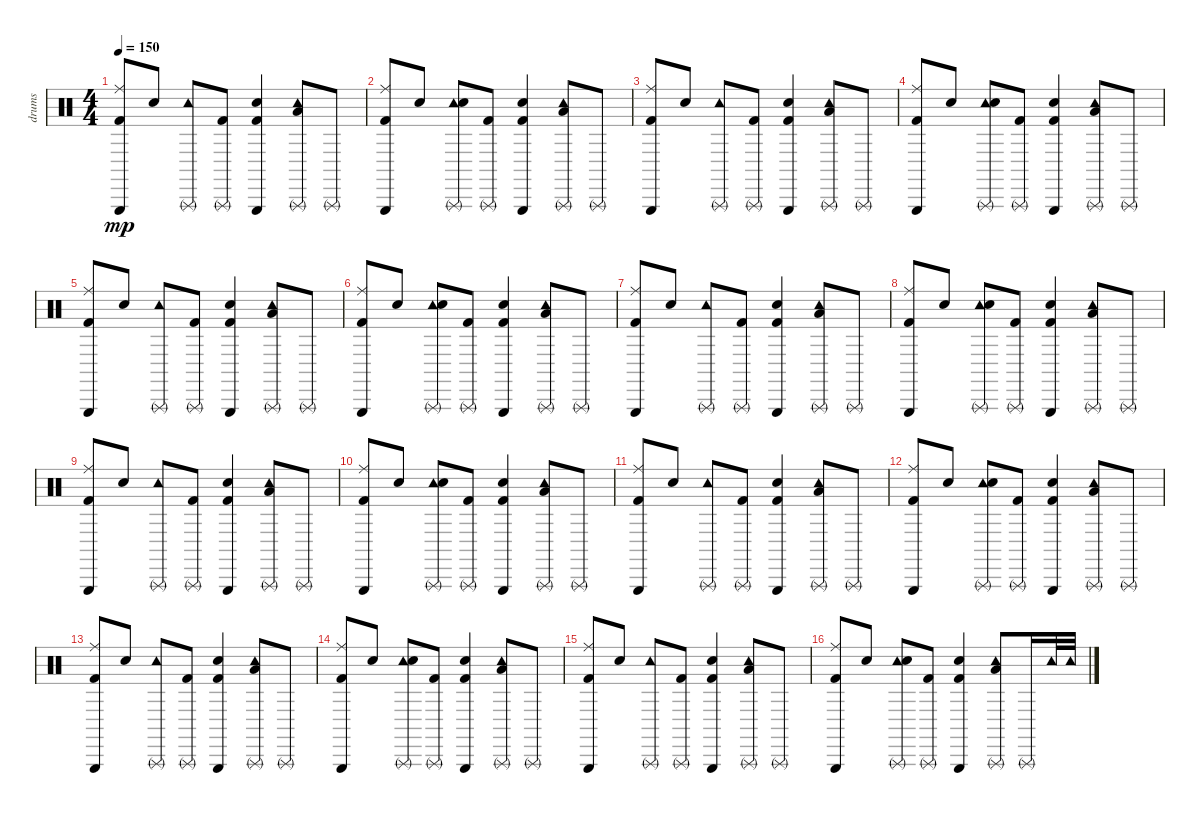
\track ("drums" "drums") {instrument percussion}
\staff {score}
\articulation defaults
\ts (4 4)
\tempo 150
\clef neutral
\ks c
("Triangle (hit)" "Ride (middle)" "Kick (hit) 2").8{dy mp} "Snare (hit) 2".8 ("Triangle (rnute)" "Tambourine (hit)").8 ("Triangle (rnute)" "Kick (hit) 2").8 ("Triangle (hit)" "Kick (hit) 2" "Snare (hit) 2").4 ("Tambourine (hit)" "Low Tom (hit)" "Triangle (rnute)").8 "Triangle (rnute)".8 |
("Triangle (hit)" "Ride (middle)" "Kick (hit) 2").8 "Snare (hit) 2".8 ("Triangle (rnute)" "Tambourine (hit)" "Snare (hit) 2").8 ("Triangle (rnute)" "Kick (hit) 2").8 ("Triangle (hit)" "Kick (hit) 2" "Snare (hit) 2").4 ("Tambourine (hit)" "Low Tom (hit)" "Triangle (rnute)").8 "Triangle (rnute)".8 |
("Triangle (hit)" "Ride (middle)" "Kick (hit) 2").8 "Snare (hit) 2".8 ("Triangle (rnute)" "Tambourine (hit)").8 ("Triangle (rnute)" "Kick (hit) 2").8 ("Triangle (hit)" "Kick (hit) 2" "Snare (hit) 2").4 ("Tambourine (hit)" "Low Tom (hit)" "Triangle (rnute)").8 "Triangle (rnute)".8 |
("Triangle (hit)" "Ride (middle)" "Kick (hit) 2").8 "Snare (hit) 2".8 ("Triangle (rnute)" "Tambourine (hit)" "Snare (hit) 2").8 ("Triangle (rnute)" "Kick (hit) 2").8 ("Triangle (hit)" "Kick (hit) 2" "Snare (hit) 2").4 ("Tambourine (hit)" "Low Tom (hit)" "Triangle (rnute)").8 "Triangle (rnute)".8 |
("Triangle (hit)" "Ride (middle)" "Kick (hit) 2").8 "Snare (hit) 2".8 ("Triangle (rnute)" "Tambourine (hit)").8 ("Triangle (rnute)" "Kick (hit) 2").8 ("Triangle (hit)" "Kick (hit) 2" "Snare (hit) 2").4 ("Tambourine (hit)" "Low Tom (hit)" "Triangle (rnute)").8 "Triangle (rnute)".8 |
("Triangle (hit)" "Ride (middle)" "Kick (hit) 2").8 "Snare (hit) 2".8 ("Triangle (rnute)" "Tambourine (hit)" "Snare (hit) 2").8 ("Triangle (rnute)" "Kick (hit) 2").8 ("Triangle (hit)" "Kick (hit) 2" "Snare (hit) 2").4 ("Tambourine (hit)" "Low Tom (hit)" "Triangle (rnute)").8 "Triangle (rnute)".8 |
("Triangle (hit)" "Ride (middle)" "Kick (hit) 2").8 "Snare (hit) 2".8 ("Triangle (rnute)" "Tambourine (hit)").8 ("Triangle (rnute)" "Kick (hit) 2").8 ("Triangle (hit)" "Kick (hit) 2" "Snare (hit) 2").4 ("Tambourine (hit)" "Low Tom (hit)" "Triangle (rnute)").8 "Triangle (rnute)".8 |
("Triangle (hit)" "Ride (middle)" "Kick (hit) 2").8 "Snare (hit) 2".8 ("Triangle (rnute)" "Tambourine (hit)" "Snare (hit) 2").8 ("Triangle (rnute)" "Kick (hit) 2").8 ("Triangle (hit)" "Kick (hit) 2" "Snare (hit) 2").4 ("Tambourine (hit)" "Low Tom (hit)" "Triangle (rnute)").8 "Triangle (rnute)".8 |
("Triangle (hit)" "Ride (middle)" "Kick (hit) 2").8 "Snare (hit) 2".8 ("Triangle (rnute)" "Tambourine (hit)").8 ("Triangle (rnute)" "Kick (hit) 2").8 ("Triangle (hit)" "Kick (hit) 2" "Snare (hit) 2").4 ("Tambourine (hit)" "Low Tom (hit)" "Triangle (rnute)").8 "Triangle (rnute)".8 |
("Triangle (hit)" "Ride (middle)" "Kick (hit) 2").8 "Snare (hit) 2".8 ("Triangle (rnute)" "Tambourine (hit)" "Snare (hit) 2").8 ("Triangle (rnute)" "Kick (hit) 2").8 ("Triangle (hit)" "Kick (hit) 2" "Snare (hit) 2").4 ("Tambourine (hit)" "Low Tom (hit)" "Triangle (rnute)").8 "Triangle (rnute)".8 |
("Triangle (hit)" "Ride (middle)" "Kick (hit) 2").8 "Snare (hit) 2".8 ("Triangle (rnute)" "Tambourine (hit)").8 ("Triangle (rnute)" "Kick (hit) 2").8 ("Triangle (hit)" "Kick (hit) 2" "Snare (hit) 2").4 ("Tambourine (hit)" "Low Tom (hit)" "Triangle (rnute)").8 "Triangle (rnute)".8 |
("Triangle (hit)" "Ride (middle)" "Kick (hit) 2").8 "Snare (hit) 2".8 ("Triangle (rnute)" "Tambourine (hit)" "Snare (hit) 2").8 ("Triangle (rnute)" "Kick (hit) 2").8 ("Triangle (hit)" "Kick (hit) 2" "Snare (hit) 2").4 ("Tambourine (hit)" "Low Tom (hit)" "Triangle (rnute)").8 "Triangle (rnute)".8 |
("Triangle (hit)" "Ride (middle)" "Kick (hit) 2").8 "Snare (hit) 2".8{volume 16} ("Triangle (rnute)" "Tambourine (hit)").8 ("Triangle (rnute)" "Kick (hit) 2").8 ("Triangle (hit)" "Kick (hit) 2" "Snare (hit) 2").4{volume 11} ("Tambourine (hit)" "Low Tom (hit)" "Triangle (rnute)").8{volume 15} "Triangle (rnute)".8{volume 15} |
("Triangle (hit)" "Ride (middle)" "Kick (hit) 2").8{volume 15} "Snare (hit) 2".8 ("Triangle (rnute)" "Tambourine (hit)" "Snare (hit) 2").8{volume 15} ("Triangle (rnute)" "Kick (hit) 2").8{volume 15} ("Triangle (hit)" "Kick (hit) 2" "Snare (hit) 2").4 ("Tambourine (hit)" "Low Tom (hit)" "Triangle (rnute)").8{volume 15} "Triangle (rnute)".8{volume 14} |
("Triangle (hit)" "Ride (middle)" "Kick (hit) 2").8{volume 14} "Snare (hit) 2".8{volume 14} ("Triangle (rnute)" "Tambourine (hit)").8{volume 14} ("Triangle (rnute)" "Kick (hit) 2").8{volume 13} ("Triangle (hit)" "Kick (hit) 2" "Snare (hit) 2").4{volume 13} ("Tambourine (hit)" "Low Tom (hit)" "Triangle (rnute)").8{volume 11} "Triangle (rnute)".8{volume 11} |
("Triangle (hit)" "Ride (middle)" "Kick (hit) 2").8{volume 7} "Snare (hit) 2".8{volume 10} ("Triangle (rnute)" "Tambourine (hit)" "Snare (hit) 2").8{volume 10} ("Triangle (rnute)" "Kick (hit) 2").8{volume 10} ("Triangle (hit)" "Kick (hit) 2" "Snare (hit) 2").4{volume 9} ("Tambourine (hit)" "Low Tom (hit)" "Triangle (rnute)").8{volume 9} "Triangle (rnute)".16{volume 8} "Tambourine (hit)".32{volume 4} "Tambourine (hit)".32
